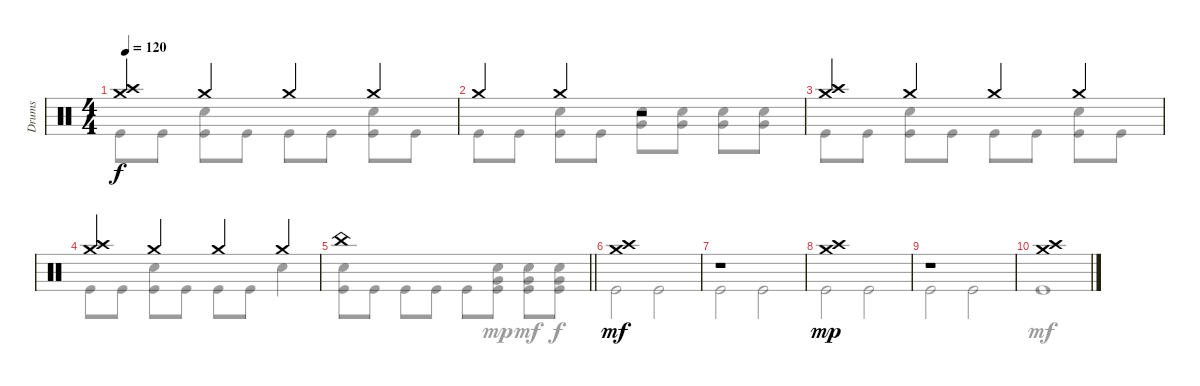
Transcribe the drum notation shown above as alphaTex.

\track ("Drums" "Drums") {instrument percussion}
\staff {score}
\articulation defaults
\voice
\ts (4 4)
\tempo 120
\clef neutral
\ks c
("Crash medium (hit)" "Crash high (hit)").4{dy f} "Crash medium (hit)".4 "Crash medium (hit)".4 "Crash medium (hit)".4 |
"Crash medium (hit)".4 "Crash medium (hit)".4 r.2 |
("Crash medium (hit)" "Crash high (hit)").4 "Crash medium (hit)".4 "Crash medium (hit)".4 "Crash medium (hit)".4 |
("Crash medium (hit)" "Crash high (hit)").4 "Crash medium (hit)".4 "Crash medium (hit)".4 "Crash medium (hit)".4 |
\barLineRight lightlight "China (hit)".1
|
\section ("" "")
("Crash medium (hit)" "Crash high (hit)").1{dy mf} |
r.1 |
("Crash medium (hit)" "Crash high (hit)").1{dy mp} |
r.1 |
("Crash medium (hit)" "Crash high (hit)").1
\voice
\clef neutral
\ottava regular
\simile none
\ks c "Kick (hit)".8{dy f} "Kick (hit)".8
("Snare (hit) 2" "Kick (hit)").8 "Kick (hit)".8 "Kick (hit)".8 "Kick (hit)".8 ("Snare (hit) 2" "Kick (hit)").8 "Kick (hit)".8 |
"Kick (hit)".8 "Kick (hit)".8 ("Snare (hit) 2" "Kick (hit)").8 "Kick (hit)".8 ("Snare (hit) 2" "Very Low Tom (hit)").8 ("Snare (hit) 2" "Very Low Tom (hit)").8 ("Snare (hit) 2" "Very Low Tom (hit)").8 ("Snare (hit) 2" "Very Low Tom (hit)").8 |
"Kick (hit)".8 "Kick (hit)".8 ("Snare (hit) 2" "Kick (hit)").8 "Kick (hit)".8 "Kick (hit)".8 "Kick (hit)".8 ("Snare (hit) 2" "Kick (hit)").8 "Kick (hit)".8 |
"Kick (hit)".8 "Kick (hit)".8 ("Snare (hit) 2" "Kick (hit)").8 "Kick (hit)".8 "Kick (hit)".8 "Kick (hit)".8 "Snare (hit) 2".4 |
\barLineRight lightlight
("Snare (hit) 2" "Kick (hit)").8 "Kick (hit)".8 "Kick (hit)".8 "Kick (hit)".8 "Kick (hit)".8 ("Snare (hit) 2" "Very Low Tom (hit)" "Kick (hit)").8{dy mp} ("Snare (hit) 2" "Very Low Tom (hit)" "Kick (hit)").8{dy mf} ("Snare (hit) 2" "Very Low Tom (hit)" "Kick (hit)").8{dy f} |
"Kick (hit)".2{dy mf} "Kick (hit)".2 |
"Kick (hit)".2 "Kick (hit)".2 |
"Kick (hit)".2{dy mp} "Kick (hit)".2 |
"Kick (hit)".2 "Kick (hit)".2 |
"Kick (hit)".1{dy mf}
